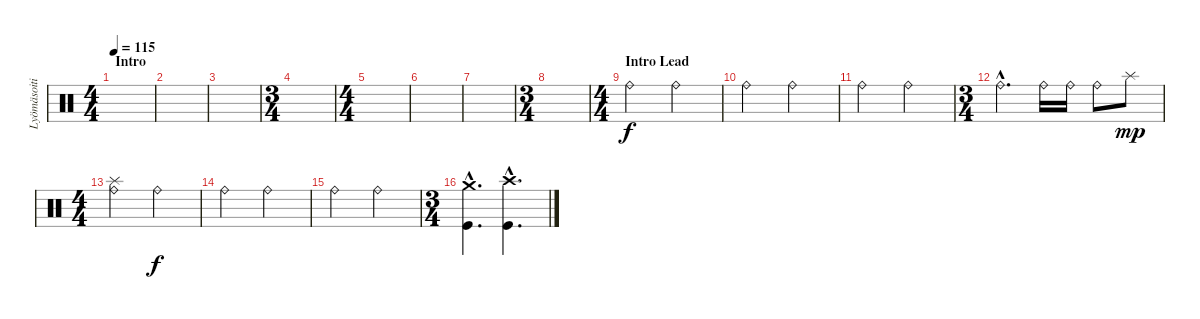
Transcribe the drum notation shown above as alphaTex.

\track ("Lyömäsoitin" "Lyömäsoiti") {instrument percussion}
\staff {score}
\articulation defaults
\ts (4 4)
\section ("" "Intro")
\tempo 115
\clef neutral
\ks c
|
|
|
\ts (3 4)
|
\ts (4 4)
|
|
|
\ts (3 4)
|
\ts (4 4)
\section ("" "Intro Lead")
"Ride (bell)".2 "Ride (bell)".2 |
"Ride (bell)".2 "Ride (bell)".2 |
"Ride (bell)".2 "Ride (bell)".2 |
\ts (3 4)
"Ride (bell)"{hac}.4{d} "Ride (bell)".16 "Ride (bell)".16 "Ride (bell)".8 "Splash (hit)".8{dy mp} |
\ts (4 4)
("Splash (hit)" "Ride (bell)").2 "Ride (bell)".2{dy f} |
"Ride (bell)".2 "Ride (bell)".2 |
"Ride (bell)".2 "Ride (bell)".2 |
\ts (3 4)
("Crash medium (hit)"{hac} "Kick (hit)"{hac}).4{d} ("Crash high (hit)"{hac} "Kick (hit)"{hac}).4{d}
